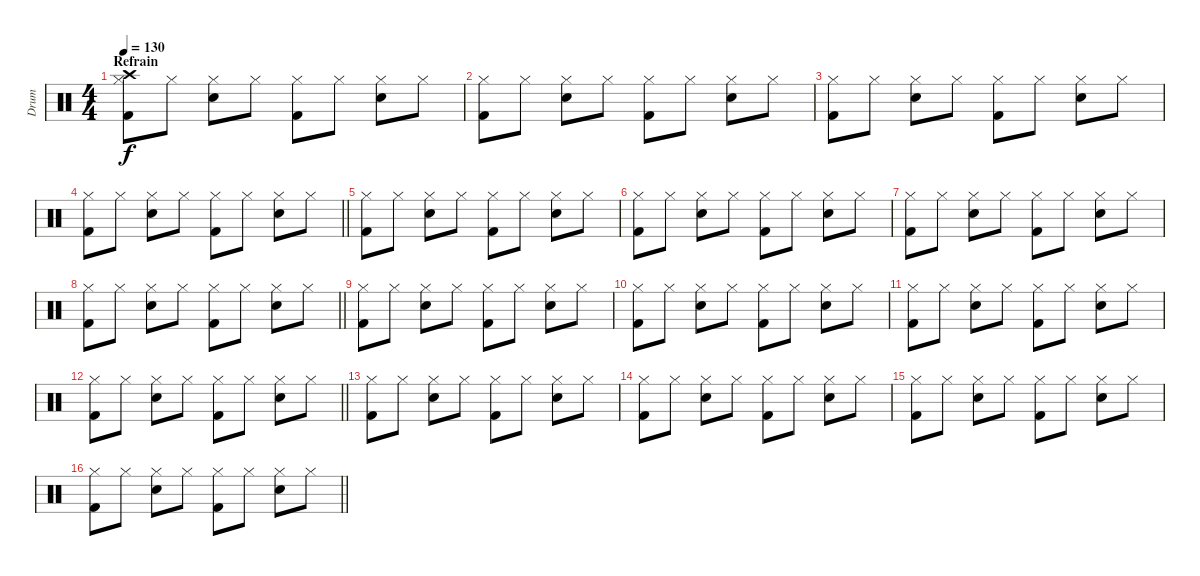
\track ("Drum" "Drum") {instrument percussion}
\staff {score}
\articulation defaults
\ts (4 4)
\section ("" "Refrain")
\tempo 130
\clef neutral
\ks c
("Crash high (hit)" "Hi-Hat (closed)" "Kick (hit) 2").8{dy f} "Hi-Hat (closed)".8 ("Snare (hit) 2" "Hi-Hat (closed)").8 "Hi-Hat (closed)".8 ("Hi-Hat (closed)" "Kick (hit) 2").8 "Hi-Hat (closed)".8 ("Snare (hit) 2" "Hi-Hat (closed)").8 "Hi-Hat (closed)".8 |
("Hi-Hat (closed)" "Kick (hit) 2").8 "Hi-Hat (closed)".8 ("Snare (hit) 2" "Hi-Hat (closed)").8 "Hi-Hat (closed)".8 ("Hi-Hat (closed)" "Kick (hit) 2").8 "Hi-Hat (closed)".8 ("Snare (hit) 2" "Hi-Hat (closed)").8 "Hi-Hat (closed)".8 |
("Hi-Hat (closed)" "Kick (hit) 2").8 "Hi-Hat (closed)".8 ("Snare (hit) 2" "Hi-Hat (closed)").8 "Hi-Hat (closed)".8 ("Hi-Hat (closed)" "Kick (hit) 2").8 "Hi-Hat (closed)".8 ("Snare (hit) 2" "Hi-Hat (closed)").8 "Hi-Hat (closed)".8 |
\barLineRight lightlight
("Hi-Hat (closed)" "Kick (hit) 2").8 "Hi-Hat (closed)".8 ("Snare (hit) 2" "Hi-Hat (closed)").8 "Hi-Hat (closed)".8 ("Hi-Hat (closed)" "Kick (hit) 2").8 "Hi-Hat (closed)".8 ("Snare (hit) 2" "Hi-Hat (closed)").8 "Hi-Hat (closed)".8 |
("Hi-Hat (closed)" "Kick (hit) 2").8 "Hi-Hat (closed)".8 ("Snare (hit) 2" "Hi-Hat (closed)").8 "Hi-Hat (closed)".8 ("Hi-Hat (closed)" "Kick (hit) 2").8 "Hi-Hat (closed)".8 ("Snare (hit) 2" "Hi-Hat (closed)").8 "Hi-Hat (closed)".8 |
("Hi-Hat (closed)" "Kick (hit) 2").8 "Hi-Hat (closed)".8 ("Snare (hit) 2" "Hi-Hat (closed)").8 "Hi-Hat (closed)".8 ("Hi-Hat (closed)" "Kick (hit) 2").8 "Hi-Hat (closed)".8 ("Snare (hit) 2" "Hi-Hat (closed)").8 "Hi-Hat (closed)".8 |
("Hi-Hat (closed)" "Kick (hit) 2").8 "Hi-Hat (closed)".8 ("Snare (hit) 2" "Hi-Hat (closed)").8 "Hi-Hat (closed)".8 ("Hi-Hat (closed)" "Kick (hit) 2").8 "Hi-Hat (closed)".8 ("Snare (hit) 2" "Hi-Hat (closed)").8 "Hi-Hat (closed)".8 |
\barLineRight lightlight
("Hi-Hat (closed)" "Kick (hit) 2").8 "Hi-Hat (closed)".8 ("Snare (hit) 2" "Hi-Hat (closed)").8 "Hi-Hat (closed)".8 ("Hi-Hat (closed)" "Kick (hit) 2").8 "Hi-Hat (closed)".8 ("Snare (hit) 2" "Hi-Hat (closed)").8 "Hi-Hat (closed)".8 |
("Hi-Hat (closed)" "Kick (hit) 2").8 "Hi-Hat (closed)".8 ("Snare (hit) 2" "Hi-Hat (closed)").8 "Hi-Hat (closed)".8 ("Hi-Hat (closed)" "Kick (hit) 2").8 "Hi-Hat (closed)".8 ("Snare (hit) 2" "Hi-Hat (closed)").8 "Hi-Hat (closed)".8 |
("Hi-Hat (closed)" "Kick (hit) 2").8 "Hi-Hat (closed)".8 ("Snare (hit) 2" "Hi-Hat (closed)").8 "Hi-Hat (closed)".8 ("Hi-Hat (closed)" "Kick (hit) 2").8 "Hi-Hat (closed)".8 ("Snare (hit) 2" "Hi-Hat (closed)").8 "Hi-Hat (closed)".8 |
("Hi-Hat (closed)" "Kick (hit) 2").8 "Hi-Hat (closed)".8 ("Snare (hit) 2" "Hi-Hat (closed)").8 "Hi-Hat (closed)".8 ("Hi-Hat (closed)" "Kick (hit) 2").8 "Hi-Hat (closed)".8 ("Snare (hit) 2" "Hi-Hat (closed)").8 "Hi-Hat (closed)".8 |
\barLineRight lightlight
("Hi-Hat (closed)" "Kick (hit) 2").8 "Hi-Hat (closed)".8 ("Snare (hit) 2" "Hi-Hat (closed)").8 "Hi-Hat (closed)".8 ("Hi-Hat (closed)" "Kick (hit) 2").8 "Hi-Hat (closed)".8 ("Snare (hit) 2" "Hi-Hat (closed)").8 "Hi-Hat (closed)".8 |
("Hi-Hat (closed)" "Kick (hit) 2").8 "Hi-Hat (closed)".8 ("Snare (hit) 2" "Hi-Hat (closed)").8 "Hi-Hat (closed)".8 ("Hi-Hat (closed)" "Kick (hit) 2").8 "Hi-Hat (closed)".8 ("Snare (hit) 2" "Hi-Hat (closed)").8 "Hi-Hat (closed)".8 |
("Hi-Hat (closed)" "Kick (hit) 2").8 "Hi-Hat (closed)".8 ("Snare (hit) 2" "Hi-Hat (closed)").8 "Hi-Hat (closed)".8 ("Hi-Hat (closed)" "Kick (hit) 2").8 "Hi-Hat (closed)".8 ("Snare (hit) 2" "Hi-Hat (closed)").8 "Hi-Hat (closed)".8 |
("Hi-Hat (closed)" "Kick (hit) 2").8 "Hi-Hat (closed)".8 ("Snare (hit) 2" "Hi-Hat (closed)").8 "Hi-Hat (closed)".8 ("Hi-Hat (closed)" "Kick (hit) 2").8 "Hi-Hat (closed)".8 ("Snare (hit) 2" "Hi-Hat (closed)").8 "Hi-Hat (closed)".8 |
\barLineRight lightlight
("Hi-Hat (closed)" "Kick (hit) 2").8 "Hi-Hat (closed)".8 ("Snare (hit) 2" "Hi-Hat (closed)").8 "Hi-Hat (closed)".8 ("Hi-Hat (closed)" "Kick (hit) 2").8 "Hi-Hat (closed)".8 ("Snare (hit) 2" "Hi-Hat (closed)").8 "Hi-Hat (closed)".8
